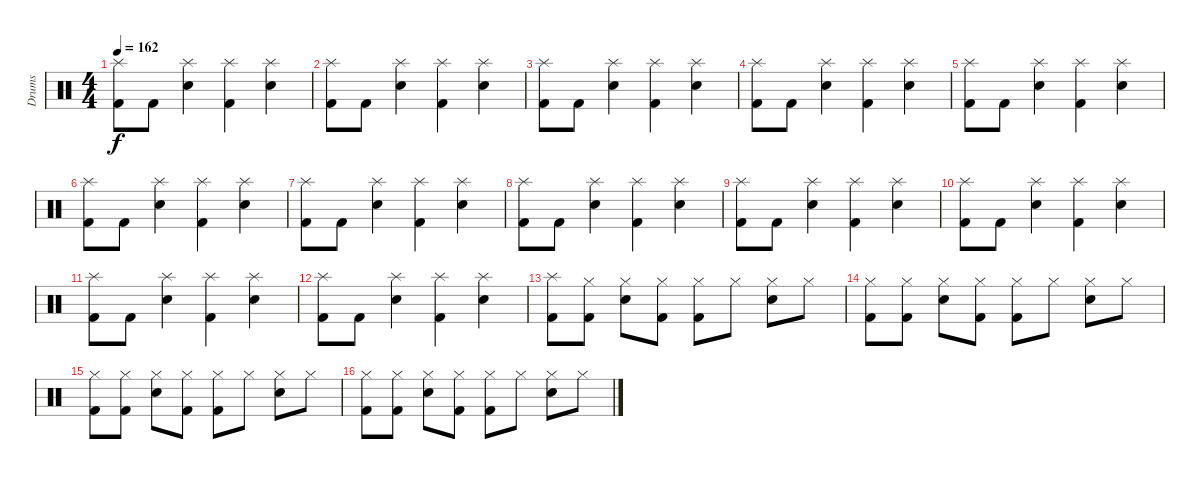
\track ("Drums" "Drums") {instrument percussion}
\staff {score}
\articulation defaults
\ts (4 4)
\tempo 162
\clef neutral
\ks c
("Splash (hit)" "Kick (hit) 2").8{dy f} "Kick (hit) 2".8 ("Splash (hit)" "Snare (hit) 2").4 ("Splash (hit)" "Kick (hit) 2").4 ("Splash (hit)" "Snare (hit) 2").4 |
("Splash (hit)" "Kick (hit) 2").8 "Kick (hit) 2".8 ("Splash (hit)" "Snare (hit) 2").4 ("Splash (hit)" "Kick (hit) 2").4 ("Splash (hit)" "Snare (hit) 2").4 |
("Splash (hit)" "Kick (hit) 2").8 "Kick (hit) 2".8 ("Splash (hit)" "Snare (hit) 2").4 ("Splash (hit)" "Kick (hit) 2").4 ("Splash (hit)" "Snare (hit) 2").4 |
("Splash (hit)" "Kick (hit) 2").8 "Kick (hit) 2".8 ("Splash (hit)" "Snare (hit) 2").4 ("Splash (hit)" "Kick (hit) 2").4 ("Splash (hit)" "Snare (hit) 2").4 |
("Splash (hit)" "Kick (hit) 2").8 "Kick (hit) 2".8 ("Splash (hit)" "Snare (hit) 2").4 ("Splash (hit)" "Kick (hit) 2").4 ("Splash (hit)" "Snare (hit) 2").4 |
("Splash (hit)" "Kick (hit) 2").8 "Kick (hit) 2".8 ("Splash (hit)" "Snare (hit) 2").4 ("Splash (hit)" "Kick (hit) 2").4 ("Splash (hit)" "Snare (hit) 2").4 |
("Splash (hit)" "Kick (hit) 2").8 "Kick (hit) 2".8 ("Splash (hit)" "Snare (hit) 2").4 ("Splash (hit)" "Kick (hit) 2").4 ("Splash (hit)" "Snare (hit) 2").4 |
("Splash (hit)" "Kick (hit) 2").8 "Kick (hit) 2".8 ("Splash (hit)" "Snare (hit) 2").4 ("Splash (hit)" "Kick (hit) 2").4 ("Splash (hit)" "Snare (hit) 2").4 |
("Splash (hit)" "Kick (hit) 2").8 "Kick (hit) 2".8 ("Splash (hit)" "Snare (hit) 2").4 ("Splash (hit)" "Kick (hit) 2").4 ("Splash (hit)" "Snare (hit) 2").4 |
("Splash (hit)" "Kick (hit) 2").8 "Kick (hit) 2".8 ("Splash (hit)" "Snare (hit) 2").4 ("Splash (hit)" "Kick (hit) 2").4 ("Splash (hit)" "Snare (hit) 2").4 |
("Splash (hit)" "Kick (hit) 2").8 "Kick (hit) 2".8 ("Splash (hit)" "Snare (hit) 2").4 ("Splash (hit)" "Kick (hit) 2").4 ("Splash (hit)" "Snare (hit) 2").4 |
("Splash (hit)" "Kick (hit) 2").8 "Kick (hit) 2".8 ("Splash (hit)" "Snare (hit) 2").4 ("Splash (hit)" "Kick (hit) 2").4 ("Splash (hit)" "Snare (hit) 2").4 |
("Splash (hit)" "Kick (hit) 2").8 ("Hi-Hat (closed)" "Kick (hit) 2").8 ("Hi-Hat (closed)" "Snare (hit) 2").8 ("Hi-Hat (closed)" "Kick (hit) 2").8 ("Hi-Hat (closed)" "Kick (hit) 2").8 "Hi-Hat (closed)".8 ("Hi-Hat (closed)" "Snare (hit) 2").8 "Hi-Hat (closed)".8 |
("Hi-Hat (closed)" "Kick (hit) 2").8 ("Hi-Hat (closed)" "Kick (hit) 2").8 ("Hi-Hat (closed)" "Snare (hit) 2").8 ("Hi-Hat (closed)" "Kick (hit) 2").8 ("Hi-Hat (closed)" "Kick (hit) 2").8 "Hi-Hat (closed)".8 ("Hi-Hat (closed)" "Snare (hit) 2").8 "Hi-Hat (closed)".8 |
("Hi-Hat (closed)" "Kick (hit) 2").8 ("Hi-Hat (closed)" "Kick (hit) 2").8 ("Hi-Hat (closed)" "Snare (hit) 2").8 ("Hi-Hat (closed)" "Kick (hit) 2").8 ("Hi-Hat (closed)" "Kick (hit) 2").8 "Hi-Hat (closed)".8 ("Hi-Hat (closed)" "Snare (hit) 2").8 "Hi-Hat (closed)".8 |
("Hi-Hat (closed)" "Kick (hit) 2").8 ("Hi-Hat (closed)" "Kick (hit) 2").8 ("Hi-Hat (closed)" "Snare (hit) 2").8 ("Hi-Hat (closed)" "Kick (hit) 2").8 ("Hi-Hat (closed)" "Kick (hit) 2").8 "Hi-Hat (closed)".8 ("Hi-Hat (closed)" "Snare (hit) 2").8 "Hi-Hat (closed)".8
